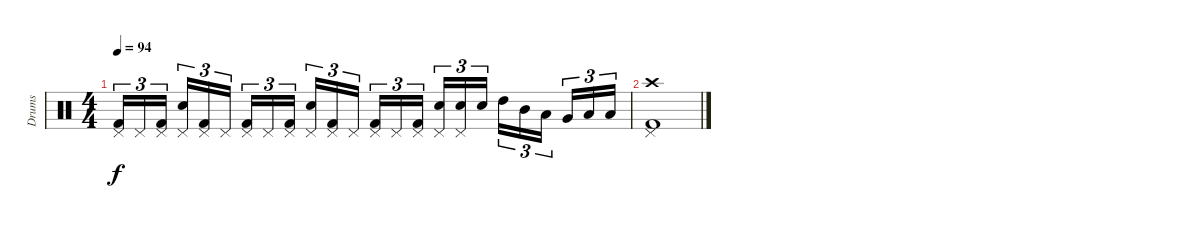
\track ("Drums" "Drums") {instrument percussion}
\staff {score}
\articulation defaults
\ts (4 4)
\tempo 94
\clef neutral
\ks c
("Kick (hit) 2" "Pedal Hi-Hat (hit)").16{tu (3 2) dy f} "Pedal Hi-Hat (hit)".16{tu (3 2)} ("Kick (hit) 2" "Pedal Hi-Hat (hit)").16{tu (3 2)} ("Snare (hit) 2" "Pedal Hi-Hat (hit)").16{tu (3 2)} ("Kick (hit) 2" "Pedal Hi-Hat (hit)").16{tu (3 2)} "Pedal Hi-Hat (hit)".16{tu (3 2)} ("Kick (hit) 2" "Pedal Hi-Hat (hit)").16{tu (3 2)} "Pedal Hi-Hat (hit)".16{tu (3 2)} ("Kick (hit) 2" "Pedal Hi-Hat (hit)").16{tu (3 2)} ("Snare (hit) 2" "Pedal Hi-Hat (hit)").16{tu (3 2)} ("Kick (hit) 2" "Pedal Hi-Hat (hit)").16{tu (3 2)} "Pedal Hi-Hat (hit)".16{tu (3 2)} ("Kick (hit) 2" "Pedal Hi-Hat (hit)").16{tu (3 2)} "Pedal Hi-Hat (hit)".16{tu (3 2)} ("Kick (hit) 2" "Pedal Hi-Hat (hit)").16{tu (3 2)} ("Snare (hit) 2" "Pedal Hi-Hat (hit)").16{tu (3 2)} ("Snare (hit) 2" "Pedal Hi-Hat (hit)").16{tu (3 2)} "Snare (hit) 2".16{tu (3 2)} "High Tom (hit)".16{tu (3 2)} "Mid Tom (hit)".16{tu (3 2)} "Low Tom (hit)".16{tu (3 2)} "Very Low Tom (hit)".16{tu (3 2)} "Low Floor Tom (hit)".16{tu (3 2)} "Low Floor Tom (hit)".16{tu (3 2)} |
("Kick (hit) 2" "Pedal Hi-Hat (hit)" "Crash high (hit)").1
